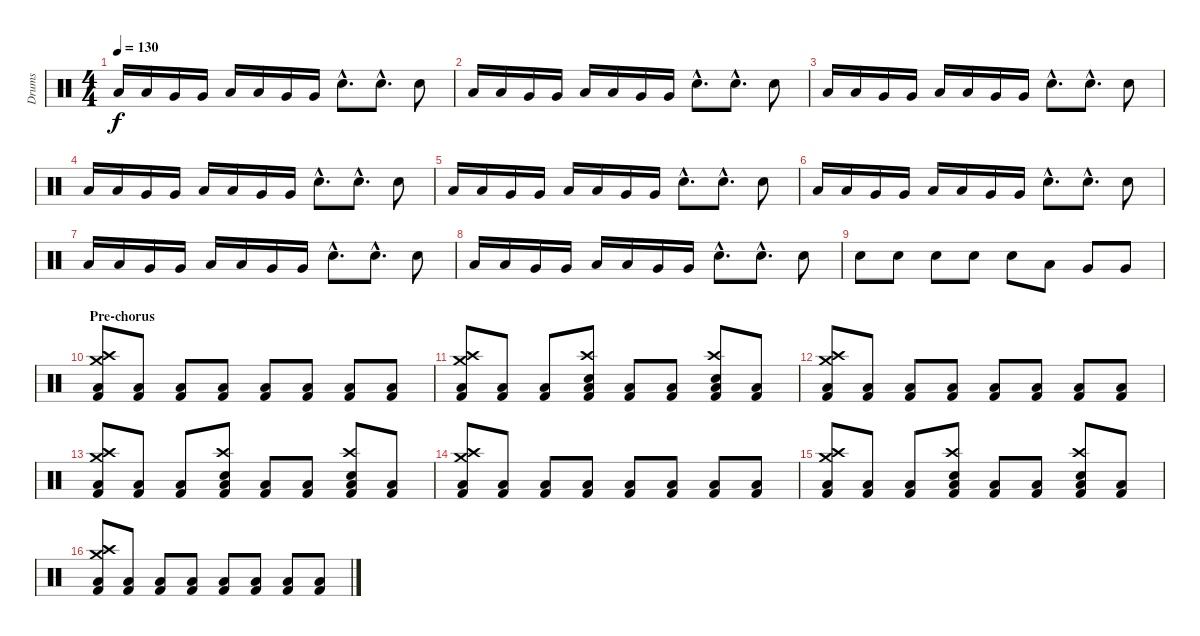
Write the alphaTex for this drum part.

\track ("Drums" "Drums") {instrument percussion}
\staff {score}
\articulation defaults
\ts (4 4)
\tempo 130
\clef neutral
\ks c "Low Tom (hit)".16{dy f} "Low Tom (hit)".16 "Very Low Tom (hit)".16 "Very Low Tom (hit)".16 "Low Tom (hit)".16 "Low Tom (hit)".16 "Very Low Tom (hit)".16 "Very Low Tom (hit)".16 "Electric Snare (hit)"{hac}.8{d} "Electric Snare (hit)"{hac}.8{d} "Electric Snare (hit)".8
|
"Low Tom (hit)".16 "Low Tom (hit)".16 "Very Low Tom (hit)".16 "Very Low Tom (hit)".16 "Low Tom (hit)".16 "Low Tom (hit)".16 "Very Low Tom (hit)".16 "Very Low Tom (hit)".16 "Electric Snare (hit)"{hac}.8{d} "Electric Snare (hit)"{hac}.8{d} "Electric Snare (hit)".8 |
"Low Tom (hit)".16 "Low Tom (hit)".16 "Very Low Tom (hit)".16 "Very Low Tom (hit)".16 "Low Tom (hit)".16 "Low Tom (hit)".16 "Very Low Tom (hit)".16 "Very Low Tom (hit)".16 "Electric Snare (hit)"{hac}.8{d} "Electric Snare (hit)"{hac}.8{d} "Electric Snare (hit)".8 |
"Low Tom (hit)".16 "Low Tom (hit)".16 "Very Low Tom (hit)".16 "Very Low Tom (hit)".16 "Low Tom (hit)".16 "Low Tom (hit)".16 "Very Low Tom (hit)".16 "Very Low Tom (hit)".16 "Electric Snare (hit)"{hac}.8{d} "Electric Snare (hit)"{hac}.8{d} "Electric Snare (hit)".8 |
"Low Tom (hit)".16 "Low Tom (hit)".16 "Very Low Tom (hit)".16 "Very Low Tom (hit)".16 "Low Tom (hit)".16 "Low Tom (hit)".16 "Very Low Tom (hit)".16 "Very Low Tom (hit)".16 "Electric Snare (hit)"{hac}.8{d} "Electric Snare (hit)"{hac}.8{d} "Electric Snare (hit)".8 |
"Low Tom (hit)".16 "Low Tom (hit)".16 "Very Low Tom (hit)".16 "Very Low Tom (hit)".16 "Low Tom (hit)".16 "Low Tom (hit)".16 "Very Low Tom (hit)".16 "Very Low Tom (hit)".16 "Electric Snare (hit)"{hac}.8{d} "Electric Snare (hit)"{hac}.8{d} "Electric Snare (hit)".8 |
"Low Tom (hit)".16 "Low Tom (hit)".16 "Very Low Tom (hit)".16 "Very Low Tom (hit)".16 "Low Tom (hit)".16 "Low Tom (hit)".16 "Very Low Tom (hit)".16 "Very Low Tom (hit)".16 "Electric Snare (hit)"{hac}.8{d} "Electric Snare (hit)"{hac}.8{d} "Electric Snare (hit)".8 |
"Low Tom (hit)".16 "Low Tom (hit)".16 "Very Low Tom (hit)".16 "Very Low Tom (hit)".16 "Low Tom (hit)".16 "Low Tom (hit)".16 "Very Low Tom (hit)".16 "Very Low Tom (hit)".16 "Electric Snare (hit)"{hac}.8{d} "Electric Snare (hit)"{hac}.8{d} "Electric Snare (hit)".8 |
"Electric Snare (hit)".8 "Electric Snare (hit)".8 "Snare (hit) 2".8 "Snare (hit) 2".8 "Electric Snare (hit)".8 "Low Tom (hit)".8 "Very Low Tom (hit)".8 "Very Low Tom (hit)".8 |
\section ("" "Pre-chorus")
("Crash medium (hit)" "Crash high (hit)" "Low Tom (hit)" "Kick (hit) 2").8 ("Low Tom (hit)" "Kick (hit) 2").8 ("Low Tom (hit)" "Kick (hit) 2").8 ("Low Tom (hit)" "Kick (hit) 2").8 ("Low Tom (hit)" "Kick (hit) 2").8 ("Low Tom (hit)" "Kick (hit) 2").8 ("Low Tom (hit)" "Kick (hit) 2").8 ("Low Tom (hit)" "Kick (hit) 2").8 |
("Crash medium (hit)" "Crash high (hit)" "Low Tom (hit)" "Kick (hit) 2").8 ("Low Tom (hit)" "Kick (hit) 2").8 ("Low Tom (hit)" "Kick (hit) 2").8 ("Crash high (hit)" "Electric Snare (hit)" "Low Tom (hit)" "Kick (hit) 2").8 ("Low Tom (hit)" "Kick (hit) 2").8 ("Low Tom (hit)" "Kick (hit) 2").8 ("Electric Snare (hit)" "Crash high (hit)" "Low Tom (hit)" "Kick (hit) 2").8 ("Low Tom (hit)" "Kick (hit) 2").8 |
("Crash medium (hit)" "Crash high (hit)" "Low Tom (hit)" "Kick (hit) 2").8 ("Low Tom (hit)" "Kick (hit) 2").8 ("Low Tom (hit)" "Kick (hit) 2").8 ("Low Tom (hit)" "Kick (hit) 2").8 ("Low Tom (hit)" "Kick (hit) 2").8 ("Low Tom (hit)" "Kick (hit) 2").8 ("Low Tom (hit)" "Kick (hit) 2").8 ("Low Tom (hit)" "Kick (hit) 2").8 |
("Crash medium (hit)" "Crash high (hit)" "Low Tom (hit)" "Kick (hit) 2").8 ("Low Tom (hit)" "Kick (hit) 2").8 ("Low Tom (hit)" "Kick (hit) 2").8 ("Crash high (hit)" "Electric Snare (hit)" "Low Tom (hit)" "Kick (hit) 2").8 ("Low Tom (hit)" "Kick (hit) 2").8 ("Low Tom (hit)" "Kick (hit) 2").8 ("Electric Snare (hit)" "Crash high (hit)" "Low Tom (hit)" "Kick (hit) 2").8 ("Low Tom (hit)" "Kick (hit) 2").8 |
("Crash medium (hit)" "Crash high (hit)" "Low Tom (hit)" "Kick (hit) 2").8 ("Low Tom (hit)" "Kick (hit) 2").8 ("Low Tom (hit)" "Kick (hit) 2").8 ("Low Tom (hit)" "Kick (hit) 2").8 ("Low Tom (hit)" "Kick (hit) 2").8 ("Low Tom (hit)" "Kick (hit) 2").8 ("Low Tom (hit)" "Kick (hit) 2").8 ("Low Tom (hit)" "Kick (hit) 2").8 |
("Crash medium (hit)" "Crash high (hit)" "Low Tom (hit)" "Kick (hit) 2").8 ("Low Tom (hit)" "Kick (hit) 2").8 ("Low Tom (hit)" "Kick (hit) 2").8 ("Crash high (hit)" "Electric Snare (hit)" "Low Tom (hit)" "Kick (hit) 2").8 ("Low Tom (hit)" "Kick (hit) 2").8 ("Low Tom (hit)" "Kick (hit) 2").8 ("Electric Snare (hit)" "Crash high (hit)" "Low Tom (hit)" "Kick (hit) 2").8 ("Low Tom (hit)" "Kick (hit) 2").8 |
("Crash medium (hit)" "Crash high (hit)" "Low Tom (hit)" "Kick (hit) 2").8 ("Low Tom (hit)" "Kick (hit) 2").8 ("Low Tom (hit)" "Kick (hit) 2").8 ("Low Tom (hit)" "Kick (hit) 2").8 ("Low Tom (hit)" "Kick (hit) 2").8 ("Low Tom (hit)" "Kick (hit) 2").8 ("Low Tom (hit)" "Kick (hit) 2").8 ("Low Tom (hit)" "Kick (hit) 2").8
